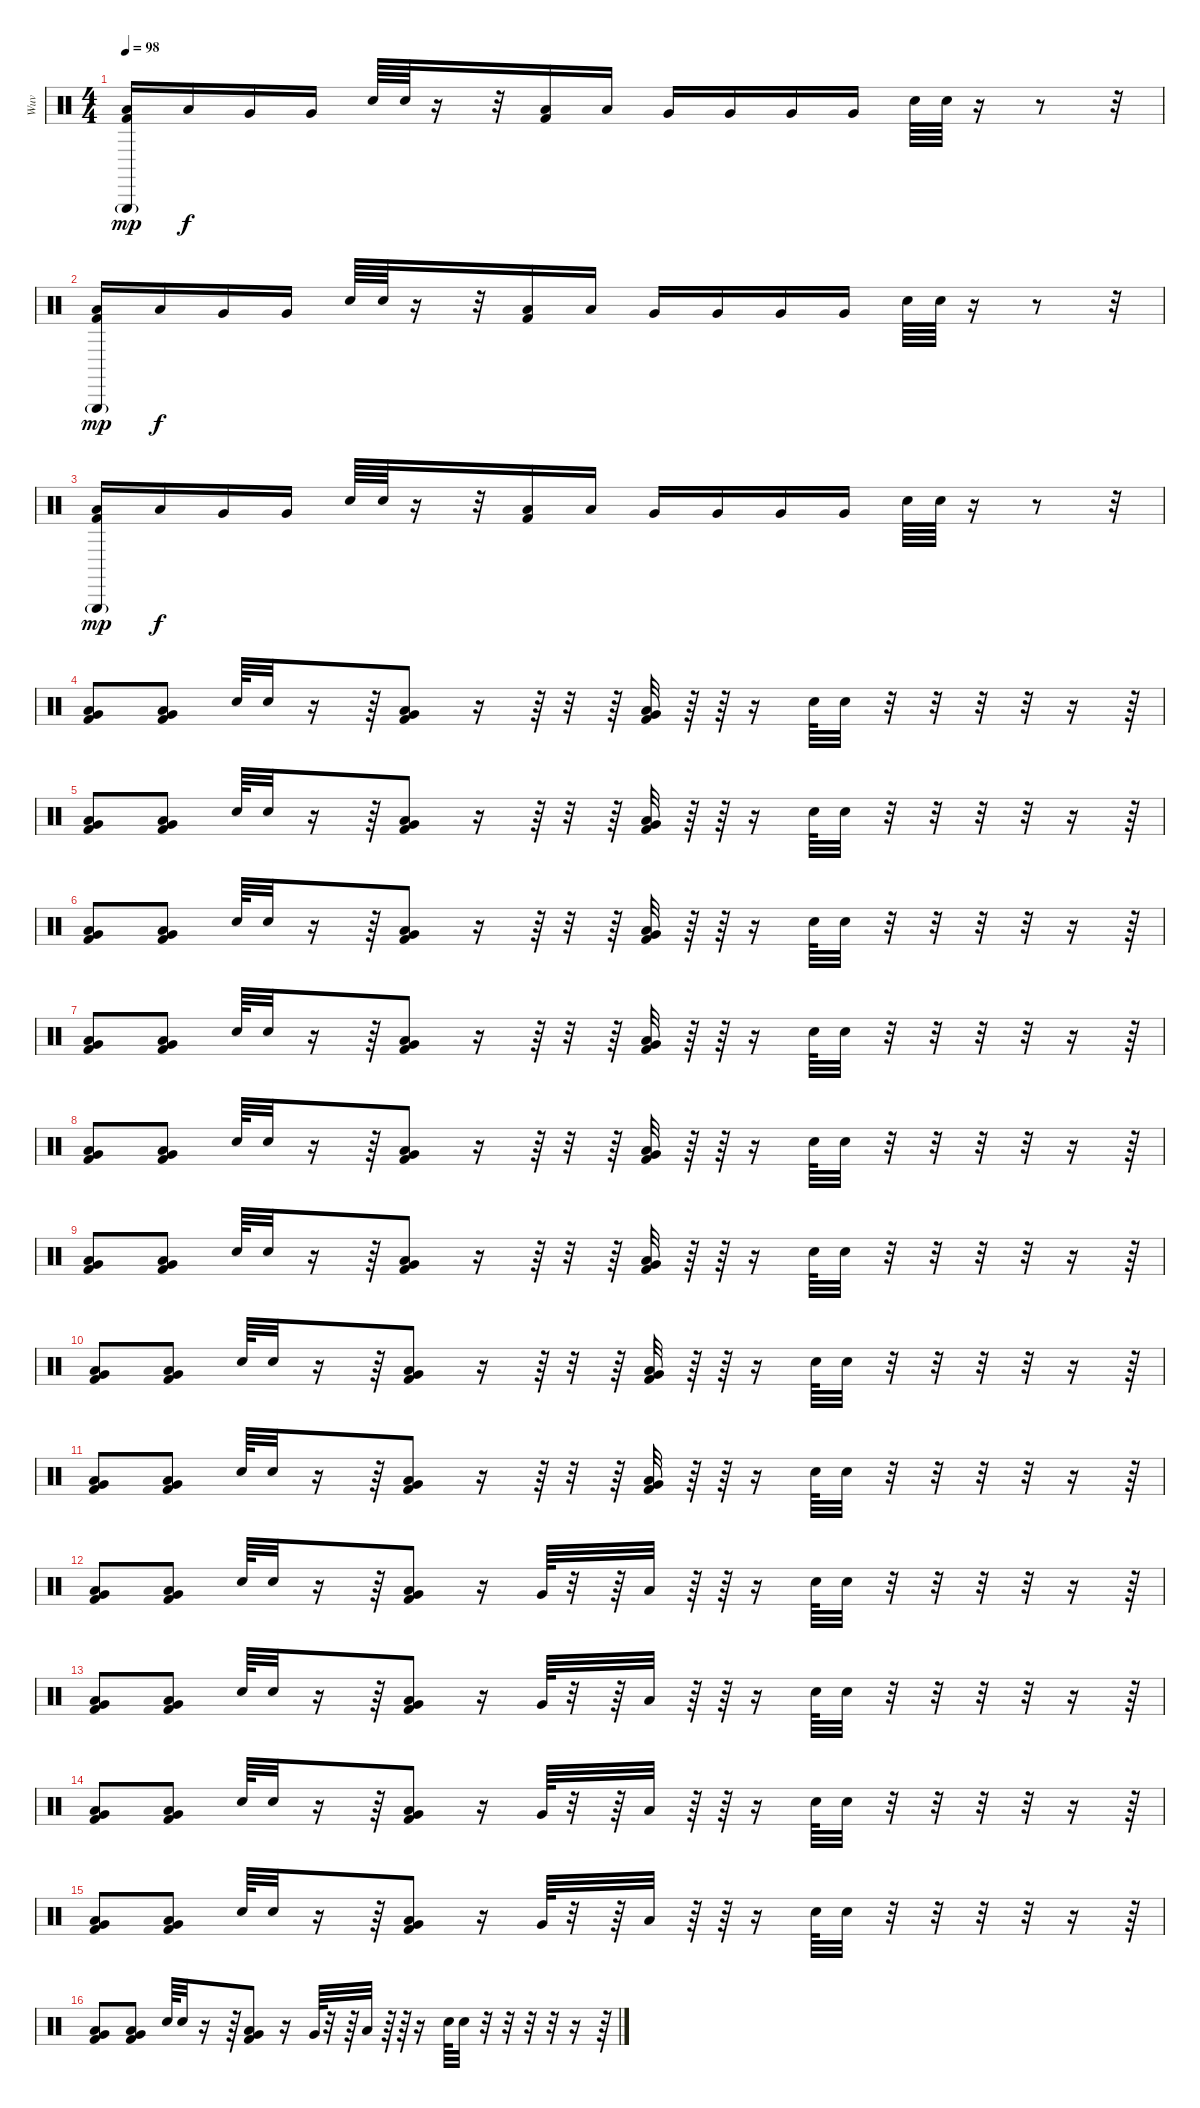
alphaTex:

\track ("Wuv" "Wuv") {instrument percussion}
\staff {score}
\articulation defaults
\ts (4 4)
\tempo 98
\clef neutral
\ks c
("Low Tom (hit)" "Triangle (hit)"{g} "Kick (hit) 2").16{dy mp} "Low Tom (hit)".16{dy f} "Very Low Tom (hit)".16 "Very Low Tom (hit)".16 "Electric Snare (hit)".64 "Electric Snare (hit)".64 r.16 r.32 ("Low Tom (hit)" "Kick (hit) 2").16 "Low Tom (hit)".16 "Very Low Tom (hit)".16 "Very Low Tom (hit)".16 "Very Low Tom (hit)".16 "Very Low Tom (hit)".16 "Electric Snare (hit)".64 "Electric Snare (hit)".64 r.16 r.8 r.32 |
("Low Tom (hit)" "Triangle (hit)"{g} "Kick (hit) 2").16{dy mp} "Low Tom (hit)".16{dy f} "Very Low Tom (hit)".16 "Very Low Tom (hit)".16 "Electric Snare (hit)".64 "Electric Snare (hit)".64 r.16 r.32 ("Low Tom (hit)" "Kick (hit) 2").16 "Low Tom (hit)".16 "Very Low Tom (hit)".16 "Very Low Tom (hit)".16 "Very Low Tom (hit)".16 "Very Low Tom (hit)".16 "Electric Snare (hit)".64 "Electric Snare (hit)".64 r.16 r.8 r.32 |
("Low Tom (hit)" "Triangle (hit)"{g} "Kick (hit) 2").16{dy mp} "Low Tom (hit)".16{dy f} "Very Low Tom (hit)".16 "Very Low Tom (hit)".16 "Electric Snare (hit)".64 "Electric Snare (hit)".64 r.16 r.32 ("Low Tom (hit)" "Kick (hit) 2").16 "Low Tom (hit)".16 "Very Low Tom (hit)".16 "Very Low Tom (hit)".16 "Very Low Tom (hit)".16 "Very Low Tom (hit)".16 "Electric Snare (hit)".64 "Electric Snare (hit)".64 r.16 r.8 r.32 |
("Very Low Tom (hit)" "Low Tom (hit)" "Kick (hit) 2").8 ("Very Low Tom (hit)" "Low Tom (hit)" "Kick (hit) 2").8 "Electric Snare (hit)".64 "Electric Snare (hit)".32 r.16 r.64 ("Very Low Tom (hit)" "Low Tom (hit)" "Kick (hit) 2").8 r.16 r.64 r.32 r.64 ("Very Low Tom (hit)" "Low Tom (hit)" "Kick (hit) 2").32 r.64 r.64 r.16 "Electric Snare (hit)".64 "Electric Snare (hit)".32 r.32 r.32 r.32 r.32 r.16 r.64 |
("Very Low Tom (hit)" "Low Tom (hit)" "Kick (hit) 2").8 ("Very Low Tom (hit)" "Low Tom (hit)" "Kick (hit) 2").8 "Electric Snare (hit)".64 "Electric Snare (hit)".32 r.16 r.64 ("Very Low Tom (hit)" "Low Tom (hit)" "Kick (hit) 2").8 r.16 r.64 r.32 r.64 ("Very Low Tom (hit)" "Low Tom (hit)" "Kick (hit) 2").32 r.64 r.64 r.16 "Electric Snare (hit)".64 "Electric Snare (hit)".32 r.32 r.32 r.32 r.32 r.16 r.64 |
("Very Low Tom (hit)" "Low Tom (hit)" "Kick (hit) 2").8 ("Very Low Tom (hit)" "Low Tom (hit)" "Kick (hit) 2").8 "Electric Snare (hit)".64 "Electric Snare (hit)".32 r.16 r.64 ("Very Low Tom (hit)" "Low Tom (hit)" "Kick (hit) 2").8 r.16 r.64 r.32 r.64 ("Very Low Tom (hit)" "Low Tom (hit)" "Kick (hit) 2").32 r.64 r.64 r.16 "Electric Snare (hit)".64 "Electric Snare (hit)".32 r.32 r.32 r.32 r.32 r.16 r.64 |
("Very Low Tom (hit)" "Low Tom (hit)" "Kick (hit) 2").8 ("Very Low Tom (hit)" "Low Tom (hit)" "Kick (hit) 2").8 "Electric Snare (hit)".64 "Electric Snare (hit)".32 r.16 r.64 ("Very Low Tom (hit)" "Low Tom (hit)" "Kick (hit) 2").8 r.16 r.64 r.32 r.64 ("Very Low Tom (hit)" "Low Tom (hit)" "Kick (hit) 2").32 r.64 r.64 r.16 "Electric Snare (hit)".64 "Electric Snare (hit)".32 r.32 r.32 r.32 r.32 r.16 r.64 |
("Very Low Tom (hit)" "Low Tom (hit)" "Kick (hit) 2").8 ("Very Low Tom (hit)" "Low Tom (hit)" "Kick (hit) 2").8 "Electric Snare (hit)".64 "Electric Snare (hit)".32 r.16 r.64 ("Very Low Tom (hit)" "Low Tom (hit)" "Kick (hit) 2").8 r.16 r.64 r.32 r.64 ("Very Low Tom (hit)" "Low Tom (hit)" "Kick (hit) 2").32 r.64 r.64 r.16 "Electric Snare (hit)".64 "Electric Snare (hit)".32 r.32 r.32 r.32 r.32 r.16 r.64 |
("Very Low Tom (hit)" "Low Tom (hit)" "Kick (hit) 2").8 ("Very Low Tom (hit)" "Low Tom (hit)" "Kick (hit) 2").8 "Electric Snare (hit)".64 "Electric Snare (hit)".32 r.16 r.64 ("Very Low Tom (hit)" "Low Tom (hit)" "Kick (hit) 2").8 r.16 r.64 r.32 r.64 ("Very Low Tom (hit)" "Low Tom (hit)" "Kick (hit) 2").32 r.64 r.64 r.16 "Electric Snare (hit)".64 "Electric Snare (hit)".32 r.32 r.32 r.32 r.32 r.16 r.64 |
("Very Low Tom (hit)" "Low Tom (hit)" "Kick (hit) 2").8 ("Very Low Tom (hit)" "Low Tom (hit)" "Kick (hit) 2").8 "Electric Snare (hit)".64 "Electric Snare (hit)".32 r.16 r.64 ("Very Low Tom (hit)" "Low Tom (hit)" "Kick (hit) 2").8 r.16 r.64 r.32 r.64 ("Very Low Tom (hit)" "Low Tom (hit)" "Kick (hit) 2").32 r.64 r.64 r.16 "Electric Snare (hit)".64 "Electric Snare (hit)".32 r.32 r.32 r.32 r.32 r.16 r.64 |
("Very Low Tom (hit)" "Low Tom (hit)" "Kick (hit) 2").8 ("Very Low Tom (hit)" "Low Tom (hit)" "Kick (hit) 2").8 "Electric Snare (hit)".64 "Electric Snare (hit)".32 r.16 r.64 ("Very Low Tom (hit)" "Low Tom (hit)" "Kick (hit) 2").8 r.16 r.64 r.32 r.64 ("Very Low Tom (hit)" "Low Tom (hit)" "Kick (hit) 2").32 r.64 r.64 r.16 "Electric Snare (hit)".64 "Electric Snare (hit)".32 r.32 r.32 r.32 r.32 r.16 r.64 |
("Very Low Tom (hit)" "Low Tom (hit)" "Kick (hit) 2").8 ("Very Low Tom (hit)" "Low Tom (hit)" "Kick (hit) 2").8 "Electric Snare (hit)".64 "Electric Snare (hit)".32 r.16 r.64 ("Very Low Tom (hit)" "Low Tom (hit)" "Kick (hit) 2").8 r.16 "Very Low Tom (hit)".64 r.32 r.64 "Low Tom (hit)".32 r.64 r.64 r.16 "Electric Snare (hit)".64 "Electric Snare (hit)".32 r.32 r.32 r.32 r.32 r.16 r.64 |
("Very Low Tom (hit)" "Low Tom (hit)" "Kick (hit) 2").8 ("Very Low Tom (hit)" "Low Tom (hit)" "Kick (hit) 2").8 "Electric Snare (hit)".64 "Electric Snare (hit)".32 r.16 r.64 ("Very Low Tom (hit)" "Low Tom (hit)" "Kick (hit) 2").8 r.16 "Very Low Tom (hit)".64 r.32 r.64 "Low Tom (hit)".32 r.64 r.64 r.16 "Electric Snare (hit)".64 "Electric Snare (hit)".32 r.32 r.32 r.32 r.32 r.16 r.64 |
("Very Low Tom (hit)" "Low Tom (hit)" "Kick (hit) 2").8 ("Very Low Tom (hit)" "Low Tom (hit)" "Kick (hit) 2").8 "Electric Snare (hit)".64 "Electric Snare (hit)".32 r.16 r.64 ("Very Low Tom (hit)" "Low Tom (hit)" "Kick (hit) 2").8 r.16 "Very Low Tom (hit)".64 r.32 r.64 "Low Tom (hit)".32 r.64 r.64 r.16 "Electric Snare (hit)".64 "Electric Snare (hit)".32 r.32 r.32 r.32 r.32 r.16 r.64 |
("Very Low Tom (hit)" "Low Tom (hit)" "Kick (hit) 2").8 ("Very Low Tom (hit)" "Low Tom (hit)" "Kick (hit) 2").8 "Electric Snare (hit)".64 "Electric Snare (hit)".32 r.16 r.64 ("Very Low Tom (hit)" "Low Tom (hit)" "Kick (hit) 2").8 r.16 "Very Low Tom (hit)".64 r.32 r.64 "Low Tom (hit)".32 r.64 r.64 r.16 "Electric Snare (hit)".64 "Electric Snare (hit)".32 r.32 r.32 r.32 r.32 r.16 r.64 |
("Very Low Tom (hit)" "Low Tom (hit)" "Kick (hit) 2").8 ("Very Low Tom (hit)" "Low Tom (hit)" "Kick (hit) 2").8 "Electric Snare (hit)".64 "Electric Snare (hit)".32 r.16 r.64 ("Very Low Tom (hit)" "Low Tom (hit)" "Kick (hit) 2").8 r.16 "Very Low Tom (hit)".64 r.32 r.64 "Low Tom (hit)".32 r.64 r.64 r.16 "Electric Snare (hit)".64 "Electric Snare (hit)".32 r.32 r.32 r.32 r.32 r.16 r.64
